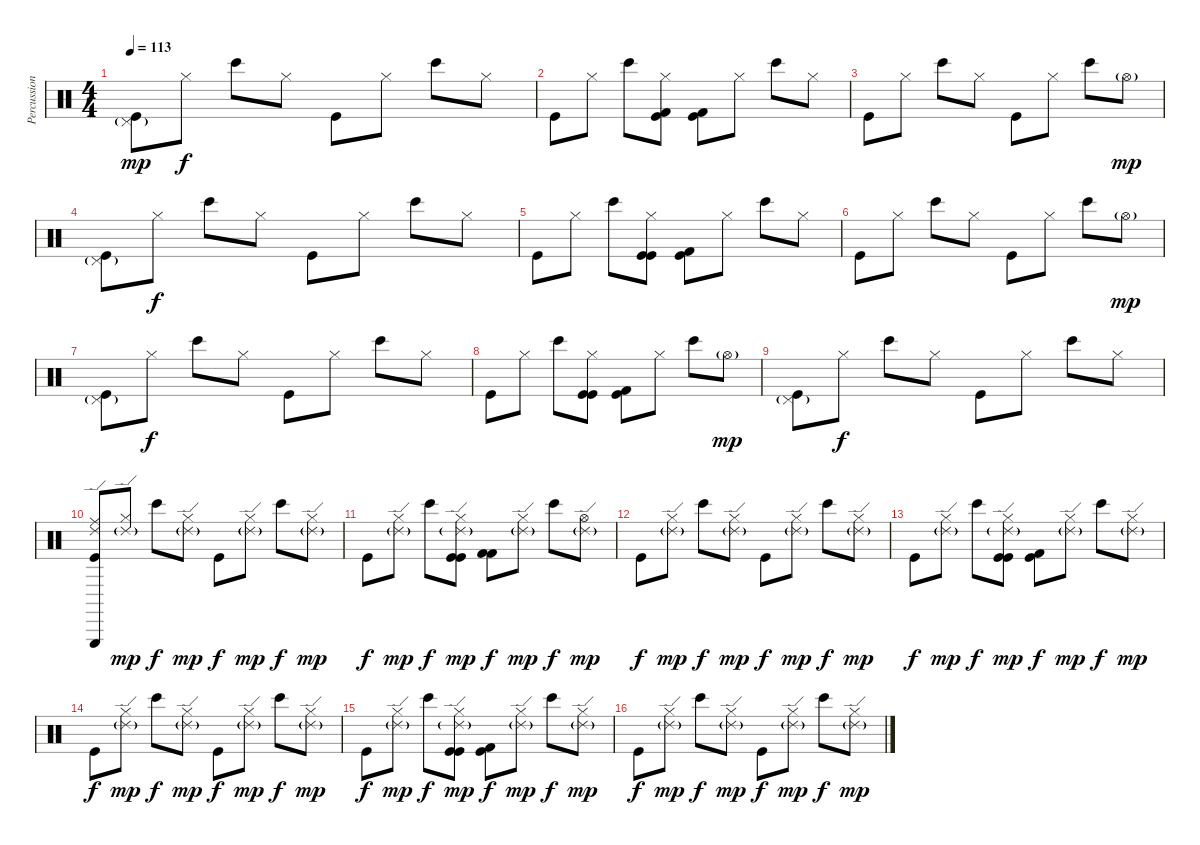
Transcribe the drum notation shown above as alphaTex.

\track ("Percussion" "Percussion") {instrument percussion}
\staff {score}
\articulation defaults
\ts (4 4)
\tempo 113
\clef neutral
\ks c
("Pedal Hi-Hat (hit)"{g} "Kick (hit)").8{dy mp} "Hi-Hat (closed)".8{dy f} "Bongo High (hit)".8 "Hi-Hat (closed)".8 "Kick (hit)".8 "Hi-Hat (closed)".8 "Bongo High (hit)".8 "Hi-Hat (closed)".8 |
"Kick (hit)".8 "Hi-Hat (closed)".8 "Bongo High (hit)".8 ("Hi-Hat (closed)" "Kick (hit)" "Kick (hit) 2").8 ("Kick (hit)" "Kick (hit) 2").8 "Hi-Hat (closed)".8 "Bongo High (hit)".8 "Hi-Hat (closed)".8 |
"Kick (hit)".8 "Hi-Hat (closed)".8 "Bongo High (hit)".8 "Hi-Hat (closed)".8 "Kick (hit)".8 "Hi-Hat (closed)".8 "Bongo High (hit)".8 "Hi-Hat (open)"{g}.8{dy mp} |
("Pedal Hi-Hat (hit)"{g} "Kick (hit)").8 "Hi-Hat (closed)".8{dy f} "Bongo High (hit)".8 "Hi-Hat (closed)".8 "Kick (hit)".8 "Hi-Hat (closed)".8 "Bongo High (hit)".8 "Hi-Hat (closed)".8 |
"Kick (hit)".8 "Hi-Hat (closed)".8 "Bongo High (hit)".8 ("Hi-Hat (closed)" "Kick (hit)" "Kick (hit)").8 ("Kick (hit)" "Kick (hit) 2").8 "Hi-Hat (closed)".8 "Bongo High (hit)".8 "Hi-Hat (closed)".8 |
"Kick (hit)".8 "Hi-Hat (closed)".8 "Bongo High (hit)".8 "Hi-Hat (closed)".8 "Kick (hit)".8 "Hi-Hat (closed)".8 "Bongo High (hit)".8 "Hi-Hat (open)"{g}.8{dy mp} |
("Pedal Hi-Hat (hit)"{g} "Kick (hit)").8 "Hi-Hat (closed)".8{dy f} "Bongo High (hit)".8 "Hi-Hat (closed)".8 "Kick (hit)".8 "Hi-Hat (closed)".8 "Bongo High (hit)".8 "Hi-Hat (closed)".8 |
"Kick (hit)".8 "Hi-Hat (closed)".8 "Bongo High (hit)".8 ("Hi-Hat (closed)" "Kick (hit)" "Kick (hit)").8 ("Kick (hit)" "Kick (hit) 2").8 "Hi-Hat (closed)".8 "Bongo High (hit)".8 "Hi-Hat (open)"{g}.8{dy mp} |
("Pedal Hi-Hat (hit)"{g} "Kick (hit)").8 "Hi-Hat (closed)".8{dy f} "Bongo High (hit)".8 "Hi-Hat (closed)".8 "Kick (hit)".8 "Hi-Hat (closed)".8 "Bongo High (hit)".8 "Hi-Hat (closed)".8 |
("Ride (edge) 2" "Ride (middle)" "Triangle (hit)" "Kick (hit)").8 ("Ride (edge) 2"{g} "Hi-Hat (closed)").8{dy mp} "Bongo High (hit)".8{dy f} ("Ride (edge) 2"{g} "Hi-Hat (closed)").8{dy mp} "Kick (hit)".8{dy f} ("Ride (edge) 2"{g} "Hi-Hat (closed)").8{dy mp} "Bongo High (hit)".8{dy f} ("Ride (edge) 2"{g} "Hi-Hat (closed)").8{dy mp} |
"Kick (hit)".8{dy f} ("Ride (edge) 2"{g} "Hi-Hat (closed)").8{dy mp} "Bongo High (hit)".8{dy f} ("Ride (edge) 2"{g} "Hi-Hat (closed)" "Kick (hit)" "Kick (hit)").8{dy mp} ("Kick (hit) 2" "Kick (hit) 2").8{dy f} ("Ride (edge) 2"{g} "Hi-Hat (closed)").8{dy mp} "Bongo High (hit)".8{dy f} ("Ride (edge) 2"{g} "Hi-Hat (open)").8{dy mp} |
"Kick (hit)".8{dy f} ("Ride (edge) 2"{g} "Hi-Hat (closed)").8{dy mp} "Bongo High (hit)".8{dy f} ("Ride (edge) 2"{g} "Hi-Hat (closed)").8{dy mp} "Kick (hit)".8{dy f} ("Ride (edge) 2"{g} "Hi-Hat (closed)").8{dy mp} "Bongo High (hit)".8{dy f} ("Ride (edge) 2"{g} "Hi-Hat (closed)").8{dy mp} |
"Kick (hit)".8{dy f} ("Ride (edge) 2"{g} "Hi-Hat (closed)").8{dy mp} "Bongo High (hit)".8{dy f} ("Ride (edge) 2"{g} "Hi-Hat (closed)" "Kick (hit)" "Kick (hit)").8{dy mp} ("Kick (hit) 2" "Kick (hit)").8{dy f} ("Ride (edge) 2"{g} "Hi-Hat (closed)").8{dy mp} "Bongo High (hit)".8{dy f} ("Ride (edge) 2"{g} "Hi-Hat (closed)").8{dy mp} |
"Kick (hit)".8{dy f} ("Ride (edge) 2"{g} "Hi-Hat (closed)").8{dy mp} "Bongo High (hit)".8{dy f} ("Ride (edge) 2"{g} "Hi-Hat (closed)").8{dy mp} "Kick (hit)".8{dy f} ("Ride (edge) 2"{g} "Hi-Hat (closed)").8{dy mp} "Bongo High (hit)".8{dy f} ("Ride (edge) 2"{g} "Hi-Hat (closed)").8{dy mp} |
"Kick (hit)".8{dy f} ("Ride (edge) 2"{g} "Hi-Hat (closed)").8{dy mp} "Bongo High (hit)".8{dy f} ("Ride (edge) 2"{g} "Hi-Hat (closed)" "Kick (hit)" "Kick (hit)").8{dy mp} ("Kick (hit)" "Kick (hit) 2").8{dy f} ("Ride (edge) 2"{g} "Hi-Hat (closed)").8{dy mp} "Bongo High (hit)".8{dy f} ("Ride (edge) 2"{g} "Hi-Hat (closed)").8{dy mp} |
"Kick (hit)".8{dy f} ("Ride (edge) 2"{g} "Hi-Hat (closed)").8{dy mp} "Bongo High (hit)".8{dy f} ("Ride (edge) 2"{g} "Hi-Hat (closed)").8{dy mp} "Kick (hit)".8{dy f} ("Ride (edge) 2"{g} "Hi-Hat (closed)").8{dy mp} "Bongo High (hit)".8{dy f} ("Ride (edge) 2"{g} "Hi-Hat (closed)").8{dy mp}
